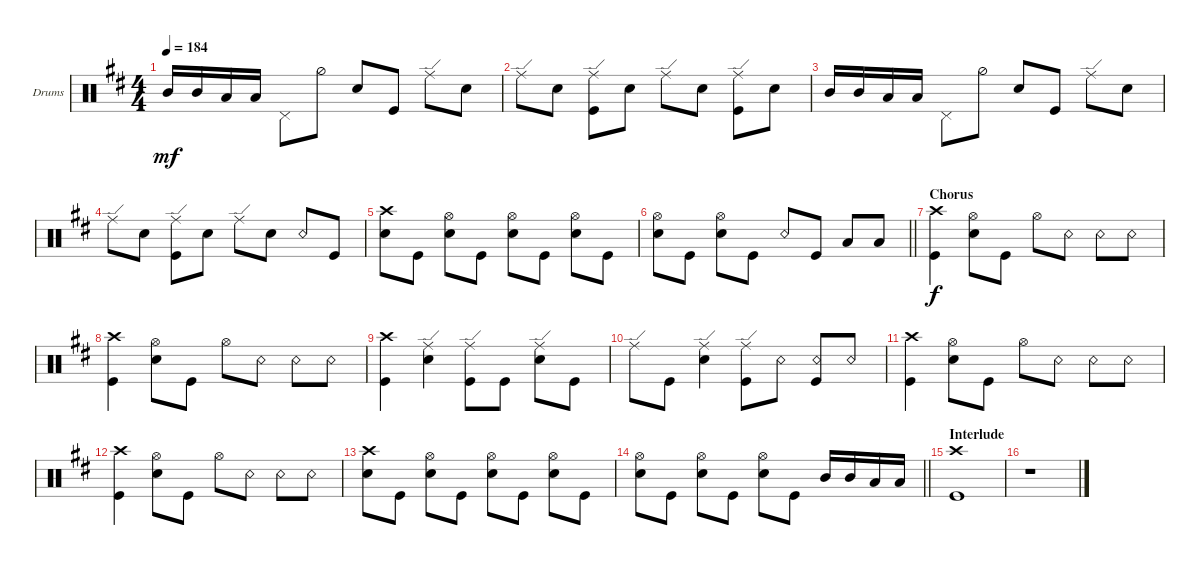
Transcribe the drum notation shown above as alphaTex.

\defaultSystemsLayout 4
\bracketExtendMode groupsimilarinstruments
\firstSystemTrackNameOrientation horizontal
\otherSystemsTrackNameOrientation horizontal
\track ("Drums" "Drums") {instrument percussion}
\staff {score}
\articulation defaults
\ts (4 4)
\tempo 184
\clef neutral
\ks d "Mid Tom (hit)".16{dy mf} "Mid Tom (hit)".16 "Low Tom (hit)".16 "Low Tom (hit)".16 "Pedal Hi-Hat (hit)".8 "Hi-Hat (half)".8 "Snare (hit) 2".8 "Kick (hit)".8 "Ride (edge)".8 "Snare (hit) 2".8
|
"Ride (edge)".8 "Snare (hit) 2".8 ("Kick (hit)" "Ride (edge)").8 "Snare (hit) 2".8 "Ride (edge)".8 "Snare (hit) 2".8 ("Kick (hit)" "Ride (edge)").8 "Snare (hit) 2".8 |
"Mid Tom (hit)".16 "Mid Tom (hit)".16 "Low Tom (hit)".16 "Low Tom (hit)".16 "Pedal Hi-Hat (hit)".8 "Hi-Hat (half)".8 "Snare (hit) 2".8 "Kick (hit)".8 "Ride (edge)".8 "Snare (hit) 2".8 |
"Ride (edge)".8 "Snare (hit) 2".8 ("Kick (hit)" "Ride (edge)").8 "Snare (hit) 2".8 "Ride (edge)".8 "Snare (hit) 2".8 "Snare (rim shot)".8 "Kick (hit)".8 |
("Crash high (hit)" "Snare (hit) 2").8 "Kick (hit)".8 ("Snare (hit) 2" "Hi-Hat (open)").8 "Kick (hit)".8 ("Snare (hit) 2" "Hi-Hat (open)").8 "Kick (hit)".8 ("Snare (hit) 2" "Hi-Hat (open)").8 "Kick (hit)".8 |
\barLineRight lightlight
("Snare (hit) 2" "Hi-Hat (open)").8 "Kick (hit)".8 ("Snare (hit) 2" "Hi-Hat (open)").8 "Kick (hit)".8 "Snare (rim shot)".8 "Kick (hit)".8 "Low Tom (hit)".8 "Low Tom (hit)".8 |
\section ("" "Chorus")
("Kick (hit)" "Crash high (hit)").4{dy f} ("Hi-Hat (open)" "Snare (hit) 2").8 "Kick (hit)".8 "Hi-Hat (open)".8 "Snare (rim shot)".8 "Snare (rim shot)".8 "Snare (rim shot)".8 |
("Kick (hit)" "Crash high (hit)").4 ("Hi-Hat (open)" "Snare (hit) 2").8 "Kick (hit)".8 "Hi-Hat (open)".8 "Snare (rim shot)".8 "Snare (rim shot)".8 "Snare (rim shot)".8 |
("Kick (hit)" "Crash high (hit)").4 ("Ride (edge)" "Snare (hit) 2").4 ("Kick (hit)" "Ride (edge)").8 "Kick (hit)".8 ("Snare (hit) 2" "Ride (edge)").8 "Kick (hit)".8 |
"Ride (edge)".8 "Kick (hit)".8 ("Snare (hit) 2" "Ride (edge)").4 ("Kick (hit)" "Ride (edge)").8 "Snare (rim shot)".8 ("Snare (rim shot)" "Kick (hit)").8 "Snare (rim shot)".8 |
("Kick (hit)" "Crash high (hit)").4 ("Hi-Hat (open)" "Snare (hit) 2").8 "Kick (hit)".8 "Hi-Hat (open)".8 "Snare (rim shot)".8 "Snare (rim shot)".8 "Snare (rim shot)".8 |
("Kick (hit)" "Crash high (hit)").4 ("Hi-Hat (open)" "Snare (hit) 2").8 "Kick (hit)".8 "Hi-Hat (open)".8 "Snare (rim shot)".8 "Snare (rim shot)".8 "Snare (rim shot)".8 |
("Snare (hit) 2" "Crash high (hit)").8 "Kick (hit)".8 ("Snare (hit) 2" "Hi-Hat (open)").8 "Kick (hit)".8 ("Snare (hit) 2" "Hi-Hat (open)").8 "Kick (hit)".8 ("Snare (hit) 2" "Hi-Hat (open)").8 "Kick (hit)".8 |
\barLineRight lightlight
("Snare (hit) 2" "Hi-Hat (open)").8 "Kick (hit)".8 ("Snare (hit) 2" "Hi-Hat (open)").8 "Kick (hit)".8 ("Snare (hit) 2" "Hi-Hat (open)").8 "Kick (hit)".8 "Mid Tom (hit)".16 "Mid Tom (hit)".16 "Low Tom (hit)".16 "Low Tom (hit)".16 |
\section ("" "Interlude")
("Kick (hit)" "Crash high (hit)").1 |
r.1
